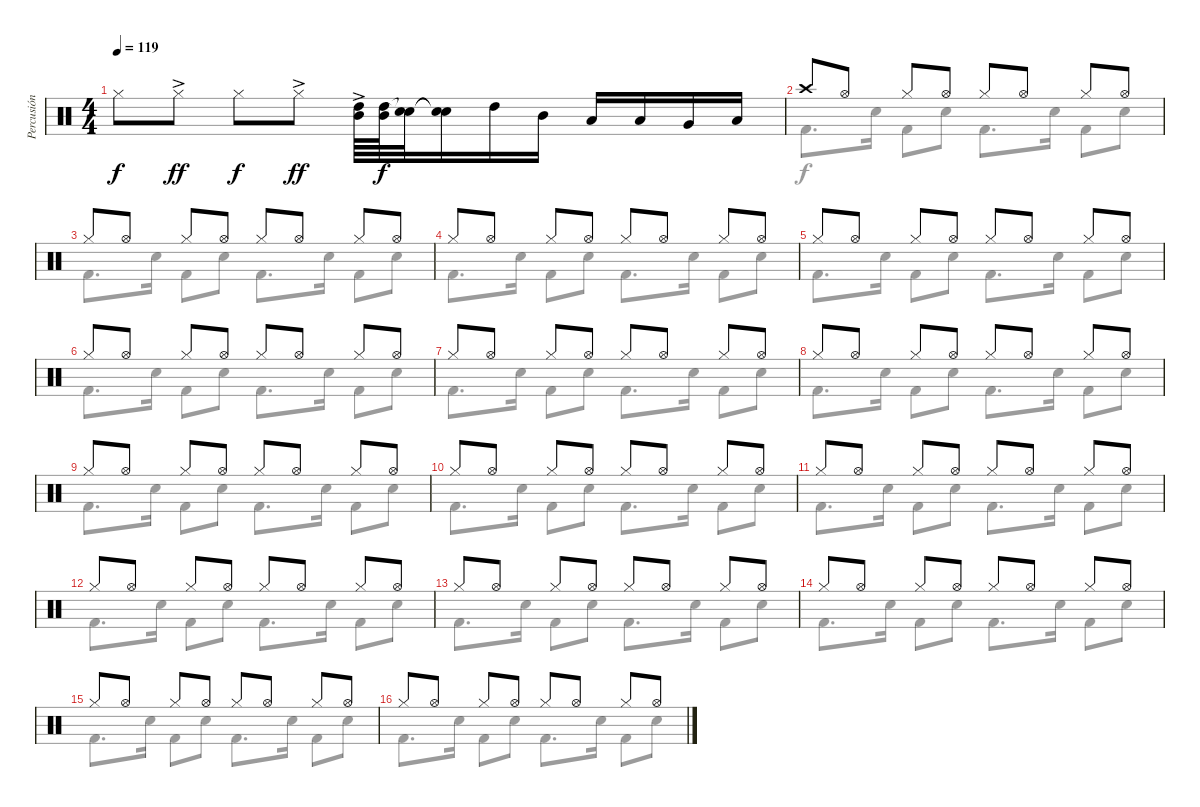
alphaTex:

\track ("Percusión" "Percusión") {mute instrument percussion}
\staff {score}
\articulation defaults
\voice
\ts (4 4)
\tempo 119
\clef neutral
\ks c "Hi-Hat (closed)".8{dy f} "Hi-Hat (closed)"{ac}.8{dy ff} "Hi-Hat (closed)".8{dy f} "Hi-Hat (closed)"{ac}.8{dy ff}
("High Tom (hit)"{ac} "Mid Tom (hit)").64 ("High Tom (hit)" "Mid Tom (hit)").64{dy f} ("Snare (hit)"{t} "Snare (hit)"{t}).32 ("Snare (hit)"{t} "Snare (hit)"{t}).16 "High Tom (hit)".16 "Mid Tom (hit)".16 "Low Tom (hit)".16 "Low Tom (hit)".16 "Very Low Tom (hit)".16 "Low Floor Tom (hit)".16 |
"Crash high (hit)".8 "Hi-Hat (open)".8 "Hi-Hat (closed)".8 "Hi-Hat (open)".8 "Hi-Hat (closed)".8 "Hi-Hat (open)".8 "Hi-Hat (closed)".8 "Hi-Hat (open)".8 |
"Hi-Hat (closed)".8 "Hi-Hat (open)".8 "Hi-Hat (closed)".8 "Hi-Hat (open)".8 "Hi-Hat (closed)".8 "Hi-Hat (open)".8 "Hi-Hat (closed)".8 "Hi-Hat (open)".8 |
"Hi-Hat (closed)".8 "Hi-Hat (open)".8 "Hi-Hat (closed)".8 "Hi-Hat (open)".8 "Hi-Hat (closed)".8 "Hi-Hat (open)".8 "Hi-Hat (closed)".8 "Hi-Hat (open)".8 |
"Hi-Hat (closed)".8 "Hi-Hat (open)".8 "Hi-Hat (closed)".8 "Hi-Hat (open)".8 "Hi-Hat (closed)".8 "Hi-Hat (open)".8 "Hi-Hat (closed)".8 "Hi-Hat (open)".8 |
"Hi-Hat (closed)".8 "Hi-Hat (open)".8 "Hi-Hat (closed)".8 "Hi-Hat (open)".8 "Hi-Hat (closed)".8 "Hi-Hat (open)".8 "Hi-Hat (closed)".8 "Hi-Hat (open)".8 |
"Hi-Hat (closed)".8 "Hi-Hat (open)".8 "Hi-Hat (closed)".8 "Hi-Hat (open)".8 "Hi-Hat (closed)".8 "Hi-Hat (open)".8 "Hi-Hat (closed)".8 "Hi-Hat (open)".8 |
"Hi-Hat (closed)".8 "Hi-Hat (open)".8 "Hi-Hat (closed)".8 "Hi-Hat (open)".8 "Hi-Hat (closed)".8 "Hi-Hat (open)".8 "Hi-Hat (closed)".8 "Hi-Hat (open)".8 |
"Hi-Hat (closed)".8 "Hi-Hat (open)".8 "Hi-Hat (closed)".8 "Hi-Hat (open)".8 "Hi-Hat (closed)".8 "Hi-Hat (open)".8 "Hi-Hat (closed)".8 "Hi-Hat (open)".8 |
"Hi-Hat (closed)".8 "Hi-Hat (open)".8 "Hi-Hat (closed)".8 "Hi-Hat (open)".8 "Hi-Hat (closed)".8 "Hi-Hat (open)".8 "Hi-Hat (closed)".8 "Hi-Hat (open)".8 |
"Hi-Hat (closed)".8 "Hi-Hat (open)".8 "Hi-Hat (closed)".8 "Hi-Hat (open)".8 "Hi-Hat (closed)".8 "Hi-Hat (open)".8 "Hi-Hat (closed)".8 "Hi-Hat (open)".8 |
"Hi-Hat (closed)".8 "Hi-Hat (open)".8 "Hi-Hat (closed)".8 "Hi-Hat (open)".8 "Hi-Hat (closed)".8 "Hi-Hat (open)".8 "Hi-Hat (closed)".8 "Hi-Hat (open)".8 |
"Hi-Hat (closed)".8 "Hi-Hat (open)".8 "Hi-Hat (closed)".8 "Hi-Hat (open)".8 "Hi-Hat (closed)".8 "Hi-Hat (open)".8 "Hi-Hat (closed)".8 "Hi-Hat (open)".8 |
"Hi-Hat (closed)".8 "Hi-Hat (open)".8 "Hi-Hat (closed)".8 "Hi-Hat (open)".8 "Hi-Hat (closed)".8 "Hi-Hat (open)".8 "Hi-Hat (closed)".8 "Hi-Hat (open)".8 |
"Hi-Hat (closed)".8 "Hi-Hat (open)".8 "Hi-Hat (closed)".8 "Hi-Hat (open)".8 "Hi-Hat (closed)".8 "Hi-Hat (open)".8 "Hi-Hat (closed)".8 "Hi-Hat (open)".8 |
"Hi-Hat (closed)".8 "Hi-Hat (open)".8 "Hi-Hat (closed)".8 "Hi-Hat (open)".8 "Hi-Hat (closed)".8 "Hi-Hat (open)".8 "Hi-Hat (closed)".8 "Hi-Hat (open)".8
\voice
\clef neutral
\ottava regular
\simile none
\ks c
|
"Kick (hit) 2".8{d} "Snare (hit) 2".16 "Kick (hit) 2".8 "Snare (hit) 2".8 "Kick (hit) 2".8{d} "Snare (hit) 2".16 "Kick (hit) 2".8 "Snare (hit) 2".8 |
"Kick (hit) 2".8{d} "Snare (hit) 2".16 "Kick (hit) 2".8 "Snare (hit) 2".8 "Kick (hit) 2".8{d} "Snare (hit) 2".16 "Kick (hit) 2".8 "Snare (hit) 2".8 |
"Kick (hit) 2".8{d} "Snare (hit) 2".16 "Kick (hit) 2".8 "Snare (hit) 2".8 "Kick (hit) 2".8{d} "Snare (hit) 2".16 "Kick (hit) 2".8 "Snare (hit) 2".8 |
"Kick (hit) 2".8{d} "Snare (hit) 2".16 "Kick (hit) 2".8 "Snare (hit) 2".8 "Kick (hit) 2".8{d} "Snare (hit) 2".16 "Kick (hit) 2".8 "Snare (hit) 2".8 |
"Kick (hit) 2".8{d} "Snare (hit) 2".16 "Kick (hit) 2".8 "Snare (hit) 2".8 "Kick (hit) 2".8{d} "Snare (hit) 2".16 "Kick (hit) 2".8 "Snare (hit) 2".8 |
"Kick (hit) 2".8{d} "Snare (hit) 2".16 "Kick (hit) 2".8 "Snare (hit) 2".8 "Kick (hit) 2".8{d} "Snare (hit) 2".16 "Kick (hit) 2".8 "Snare (hit) 2".8 |
"Kick (hit) 2".8{d} "Snare (hit) 2".16 "Kick (hit) 2".8 "Snare (hit) 2".8 "Kick (hit) 2".8{d} "Snare (hit) 2".16 "Kick (hit) 2".8 "Snare (hit) 2".8 |
"Kick (hit) 2".8{d} "Snare (hit) 2".16 "Kick (hit) 2".8 "Snare (hit) 2".8 "Kick (hit) 2".8{d} "Snare (hit) 2".16 "Kick (hit) 2".8 "Snare (hit) 2".8 |
"Kick (hit) 2".8{d} "Snare (hit) 2".16 "Kick (hit) 2".8 "Snare (hit) 2".8 "Kick (hit) 2".8{d} "Snare (hit) 2".16 "Kick (hit) 2".8 "Snare (hit) 2".8 |
"Kick (hit) 2".8{d} "Snare (hit) 2".16 "Kick (hit) 2".8 "Snare (hit) 2".8 "Kick (hit) 2".8{d} "Snare (hit) 2".16 "Kick (hit) 2".8 "Snare (hit) 2".8 |
"Kick (hit) 2".8{d} "Snare (hit) 2".16 "Kick (hit) 2".8 "Snare (hit) 2".8 "Kick (hit) 2".8{d} "Snare (hit) 2".16 "Kick (hit) 2".8 "Snare (hit) 2".8 |
"Kick (hit) 2".8{d} "Snare (hit) 2".16 "Kick (hit) 2".8 "Snare (hit) 2".8 "Kick (hit) 2".8{d} "Snare (hit) 2".16 "Kick (hit) 2".8 "Snare (hit) 2".8 |
"Kick (hit) 2".8{d} "Snare (hit) 2".16 "Kick (hit) 2".8 "Snare (hit) 2".8 "Kick (hit) 2".8{d} "Snare (hit) 2".16 "Kick (hit) 2".8 "Snare (hit) 2".8 |
"Kick (hit) 2".8{d} "Snare (hit) 2".16 "Kick (hit) 2".8 "Snare (hit) 2".8 "Kick (hit) 2".8{d} "Snare (hit) 2".16 "Kick (hit) 2".8 "Snare (hit) 2".8 |
"Kick (hit) 2".8{d} "Snare (hit) 2".16 "Kick (hit) 2".8 "Snare (hit) 2".8 "Kick (hit) 2".8{d} "Snare (hit) 2".16 "Kick (hit) 2".8 "Snare (hit) 2".8
